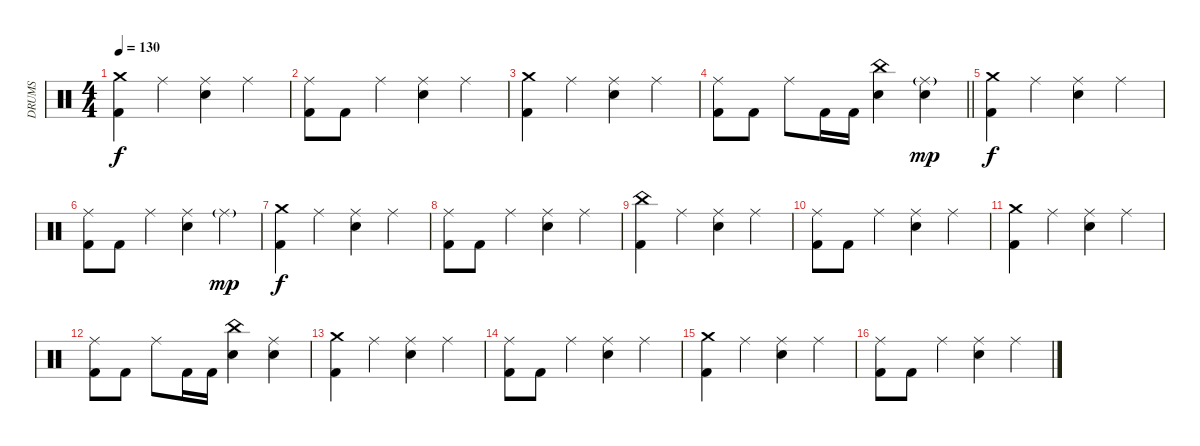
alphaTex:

\track ("DRUMS" "DRUMS") {instrument percussion}
\staff {score}
\articulation defaults
\ts (4 4)
\tempo 130
\clef neutral
\ks c
("Crash medium (hit)" "Kick (hit) 2").4{dy f} "Ride (middle)".4 ("Ride (middle)" "Snare (hit) 2").4 "Ride (middle)".4 |
("Ride (middle)" "Kick (hit) 2").8 "Kick (hit) 2".8 "Ride (middle)".4 ("Ride (middle)" "Snare (hit) 2").4 "Ride (middle)".4 |
("Crash medium (hit)" "Kick (hit) 2").4 "Ride (middle)".4 ("Ride (middle)" "Snare (hit) 2").4 "Ride (middle)".4 |
\barLineRight lightlight
("Ride (middle)" "Kick (hit) 2").8 "Kick (hit) 2".8 "Ride (middle)".8 "Kick (hit) 2".16 "Kick (hit) 2".16 ("China (hit)" "Snare (hit) 2").4 ("Ride (middle)"{g} "Snare (hit) 2").4{dy mp} |
("Crash medium (hit)" "Kick (hit) 2").4{dy f} "Ride (middle)".4 ("Ride (middle)" "Snare (hit) 2").4 "Ride (middle)".4 |
("Ride (middle)" "Kick (hit) 2").8 "Kick (hit) 2".8 "Ride (middle)".4 ("Ride (middle)" "Snare (hit) 2").4 "Ride (middle)"{g}.4{dy mp} |
("Crash medium (hit)" "Kick (hit) 2").4{dy f} "Ride (middle)".4 ("Ride (middle)" "Snare (hit) 2").4 "Ride (middle)".4 |
("Ride (middle)" "Kick (hit) 2").8 "Kick (hit) 2".8 "Ride (middle)".4 ("Ride (middle)" "Snare (hit) 2").4 "Ride (middle)".4 |
("China (hit)" "Kick (hit) 2").4 "Ride (middle)".4 ("Ride (middle)" "Snare (hit) 2").4 "Ride (middle)".4 |
("Ride (middle)" "Kick (hit) 2").8 "Kick (hit) 2".8 "Ride (middle)".4 ("Ride (middle)" "Snare (hit) 2").4 "Ride (middle)".4 |
("Crash medium (hit)" "Kick (hit) 2").4 "Ride (middle)".4 ("Ride (middle)" "Snare (hit) 2").4 "Ride (middle)".4 |
("Ride (middle)" "Kick (hit) 2").8 "Kick (hit) 2".8 "Ride (middle)".8 "Kick (hit) 2".16 "Kick (hit) 2".16 ("China (hit)" "Snare (hit) 2").4 ("Ride (middle)" "Snare (hit) 2").4 |
("Crash medium (hit)" "Kick (hit) 2").4 "Ride (middle)".4 ("Ride (middle)" "Snare (hit) 2").4 "Ride (middle)".4 |
("Ride (middle)" "Kick (hit) 2").8 "Kick (hit) 2".8 "Ride (middle)".4 ("Ride (middle)" "Snare (hit) 2").4 "Ride (middle)".4 |
("Crash medium (hit)" "Kick (hit) 2").4 "Ride (middle)".4 ("Ride (middle)" "Snare (hit) 2").4 "Ride (middle)".4 |
("Ride (middle)" "Kick (hit) 2").8 "Kick (hit) 2".8 "Ride (middle)".4 ("Ride (middle)" "Snare (hit) 2").4 "Ride (middle)".4
